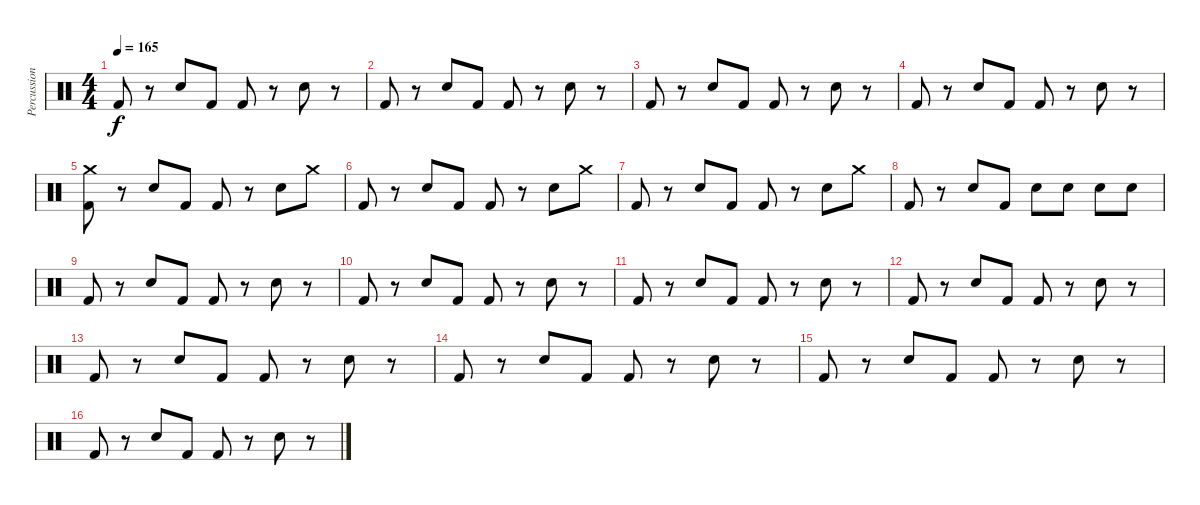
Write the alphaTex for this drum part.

\track ("Percussion" "Percussion") {instrument percussion}
\staff {score}
\articulation defaults
\ts (4 4)
\tempo 165
\clef neutral
\ks c "Kick (hit) 2".8{dy f}
r.8 "Snare (hit) 2".8 "Kick (hit) 2".8 "Kick (hit) 2".8 r.8 "Snare (hit) 2".8 r.8 |
"Kick (hit) 2".8 r.8 "Snare (hit) 2".8 "Kick (hit) 2".8 "Kick (hit) 2".8 r.8 "Snare (hit) 2".8 r.8 |
"Kick (hit) 2".8 r.8 "Snare (hit) 2".8 "Kick (hit) 2".8 "Kick (hit) 2".8 r.8 "Snare (hit) 2".8 r.8 |
"Kick (hit) 2".8 r.8 "Snare (hit) 2".8 "Kick (hit) 2".8 "Kick (hit) 2".8 r.8 "Snare (hit) 2".8 r.8 |
("Crash medium (hit)" "Kick (hit) 2").8 r.8 "Snare (hit) 2".8 "Kick (hit) 2".8 "Kick (hit) 2".8 r.8 "Snare (hit) 2".8 "Crash medium (hit)".8 |
"Kick (hit) 2".8 r.8 "Snare (hit) 2".8 "Kick (hit) 2".8 "Kick (hit) 2".8 r.8 "Snare (hit) 2".8 "Crash medium (hit)".8 |
"Kick (hit) 2".8 r.8 "Snare (hit) 2".8 "Kick (hit) 2".8 "Kick (hit) 2".8 r.8 "Snare (hit) 2".8 "Crash medium (hit)".8 |
"Kick (hit) 2".8 r.8 "Snare (hit) 2".8 "Kick (hit) 2".8 "Snare (hit) 2".8 "Snare (hit) 2".8 "Snare (hit) 2".8 "Snare (hit) 2".8 |
"Kick (hit) 2".8 r.8 "Snare (hit) 2".8 "Kick (hit) 2".8 "Kick (hit) 2".8 r.8 "Snare (hit) 2".8 r.8 |
"Kick (hit) 2".8 r.8 "Snare (hit) 2".8 "Kick (hit) 2".8 "Kick (hit) 2".8 r.8 "Snare (hit) 2".8 r.8 |
"Kick (hit) 2".8 r.8 "Snare (hit) 2".8 "Kick (hit) 2".8 "Kick (hit) 2".8 r.8 "Snare (hit) 2".8 r.8 |
"Kick (hit) 2".8 r.8 "Snare (hit) 2".8 "Kick (hit) 2".8 "Kick (hit) 2".8 r.8 "Snare (hit) 2".8 r.8 |
"Kick (hit) 2".8 r.8 "Snare (hit) 2".8 "Kick (hit) 2".8 "Kick (hit) 2".8 r.8 "Snare (hit) 2".8 r.8 |
"Kick (hit) 2".8 r.8 "Snare (hit) 2".8 "Kick (hit) 2".8 "Kick (hit) 2".8 r.8 "Snare (hit) 2".8 r.8 |
"Kick (hit) 2".8 r.8 "Snare (hit) 2".8 "Kick (hit) 2".8 "Kick (hit) 2".8 r.8 "Snare (hit) 2".8 r.8 |
"Kick (hit) 2".8 r.8 "Snare (hit) 2".8 "Kick (hit) 2".8 "Kick (hit) 2".8 r.8 "Snare (hit) 2".8 r.8
